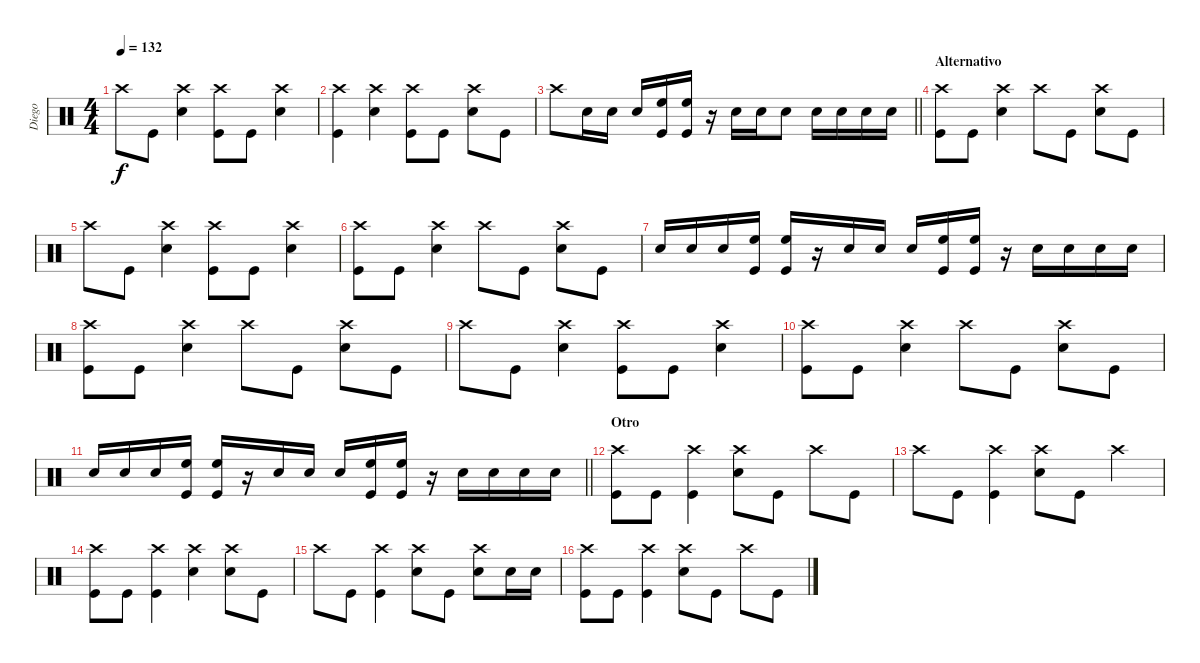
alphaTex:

\track ("Diego" "Diego") {instrument percussion}
\staff {score}
\articulation defaults
\ts (4 4)
\tempo 132
\clef neutral
\ks c "Crash high (hit)".8{dy f} "Kick (hit)".8
("Crash high (hit)" "Snare (hit) 2").4 ("Crash high (hit)" "Kick (hit)").8 "Kick (hit)".8 ("Crash high (hit)" "Snare (hit) 2").4 |
("Crash high (hit)" "Kick (hit)").4 ("Crash high (hit)" "Snare (hit) 2").4 ("Crash high (hit)" "Kick (hit)").8 "Kick (hit)".8 ("Crash high (hit)" "Snare (hit) 2").8 "Kick (hit)".8 |
\barLineRight lightlight "Crash high (hit)".8 "Snare (hit) 2".16 "Snare (hit) 2".16 "Snare (hit) 2".16
("High Floor Tom (hit)" "Kick (hit)").16 ("High Floor Tom (hit)" "Kick (hit)").16 r.16 "Snare (hit) 2".16 "Snare (hit) 2".16 "Snare (hit) 2".8 "Snare (hit) 2".16 "Snare (hit) 2".16 "Snare (hit) 2".16 "Snare (hit) 2".16 |
\section ("" "Alternativo")
("Crash high (hit)" "Kick (hit)").8 "Kick (hit)".8 ("Crash high (hit)" "Snare (hit) 2").4 "Crash high (hit)".8 "Kick (hit)".8 ("Crash high (hit)" "Snare (hit) 2").8 "Kick (hit)".8 |
"Crash high (hit)".8 "Kick (hit)".8 ("Crash high (hit)" "Snare (hit) 2").4 ("Crash high (hit)" "Kick (hit)").8 "Kick (hit)".8 ("Crash high (hit)" "Snare (hit) 2").4 |
("Crash high (hit)" "Kick (hit)").8 "Kick (hit)".8 ("Crash high (hit)" "Snare (hit) 2").4 "Crash high (hit)".8 "Kick (hit)".8 ("Crash high (hit)" "Snare (hit) 2").8 "Kick (hit)".8 |
"Snare (hit) 2".16 "Snare (hit) 2".16 "Snare (hit) 2".16 ("High Floor Tom (hit)" "Kick (hit)").16 ("High Floor Tom (hit)" "Kick (hit)").16 r.16 "Snare (hit) 2".16 "Snare (hit) 2".16 "Snare (hit) 2".16 ("High Floor Tom (hit)" "Kick (hit)").16 ("High Floor Tom (hit)" "Kick (hit)").16 r.16 "Snare (hit) 2".16 "Snare (hit) 2".16 "Snare (hit) 2".16 "Snare (hit) 2".16 |
("Crash high (hit)" "Kick (hit)").8 "Kick (hit)".8 ("Crash high (hit)" "Snare (hit) 2").4 "Crash high (hit)".8 "Kick (hit)".8 ("Crash high (hit)" "Snare (hit) 2").8 "Kick (hit)".8 |
"Crash high (hit)".8 "Kick (hit)".8 ("Crash high (hit)" "Snare (hit) 2").4 ("Crash high (hit)" "Kick (hit)").8 "Kick (hit)".8 ("Crash high (hit)" "Snare (hit) 2").4 |
("Crash high (hit)" "Kick (hit)").8 "Kick (hit)".8 ("Crash high (hit)" "Snare (hit) 2").4 "Crash high (hit)".8 "Kick (hit)".8 ("Crash high (hit)" "Snare (hit) 2").8 "Kick (hit)".8 |
\barLineRight lightlight "Snare (hit) 2".16 "Snare (hit) 2".16 "Snare (hit) 2".16
("High Floor Tom (hit)" "Kick (hit)").16 ("High Floor Tom (hit)" "Kick (hit)").16 r.16 "Snare (hit) 2".16 "Snare (hit) 2".16 "Snare (hit) 2".16 ("High Floor Tom (hit)" "Kick (hit)").16 ("High Floor Tom (hit)" "Kick (hit)").16 r.16 "Snare (hit) 2".16 "Snare (hit) 2".16 "Snare (hit) 2".16 "Snare (hit) 2".16 |
\section ("" "Otro")
("Crash high (hit)" "Kick (hit)").8 "Kick (hit)".8 ("Crash high (hit)" "Kick (hit)").4 ("Crash high (hit)" "Snare (hit) 2").8 "Kick (hit)".8 "Crash high (hit)".8 "Kick (hit)".8 |
"Crash high (hit)".8 "Kick (hit)".8 ("Crash high (hit)" "Kick (hit)").4 ("Crash high (hit)" "Snare (hit) 2").8 "Kick (hit)".8 "Crash high (hit)".4 |
("Crash high (hit)" "Kick (hit)").8 "Kick (hit)".8 ("Crash high (hit)" "Kick (hit)").4 ("Crash high (hit)" "Snare (hit) 2").4 ("Crash high (hit)" "Snare (hit) 2").8 "Kick (hit)".8 |
"Crash high (hit)".8 "Kick (hit)".8 ("Crash high (hit)" "Kick (hit)").4 ("Crash high (hit)" "Snare (hit) 2").8 "Kick (hit)".8 ("Crash high (hit)" "Snare (hit) 2").8 "Snare (hit) 2".16 "Snare (hit) 2".16 |
("Crash high (hit)" "Kick (hit)").8 "Kick (hit)".8 ("Crash high (hit)" "Kick (hit)").4 ("Crash high (hit)" "Snare (hit) 2").8 "Kick (hit)".8 "Crash high (hit)".8 "Kick (hit)".8
